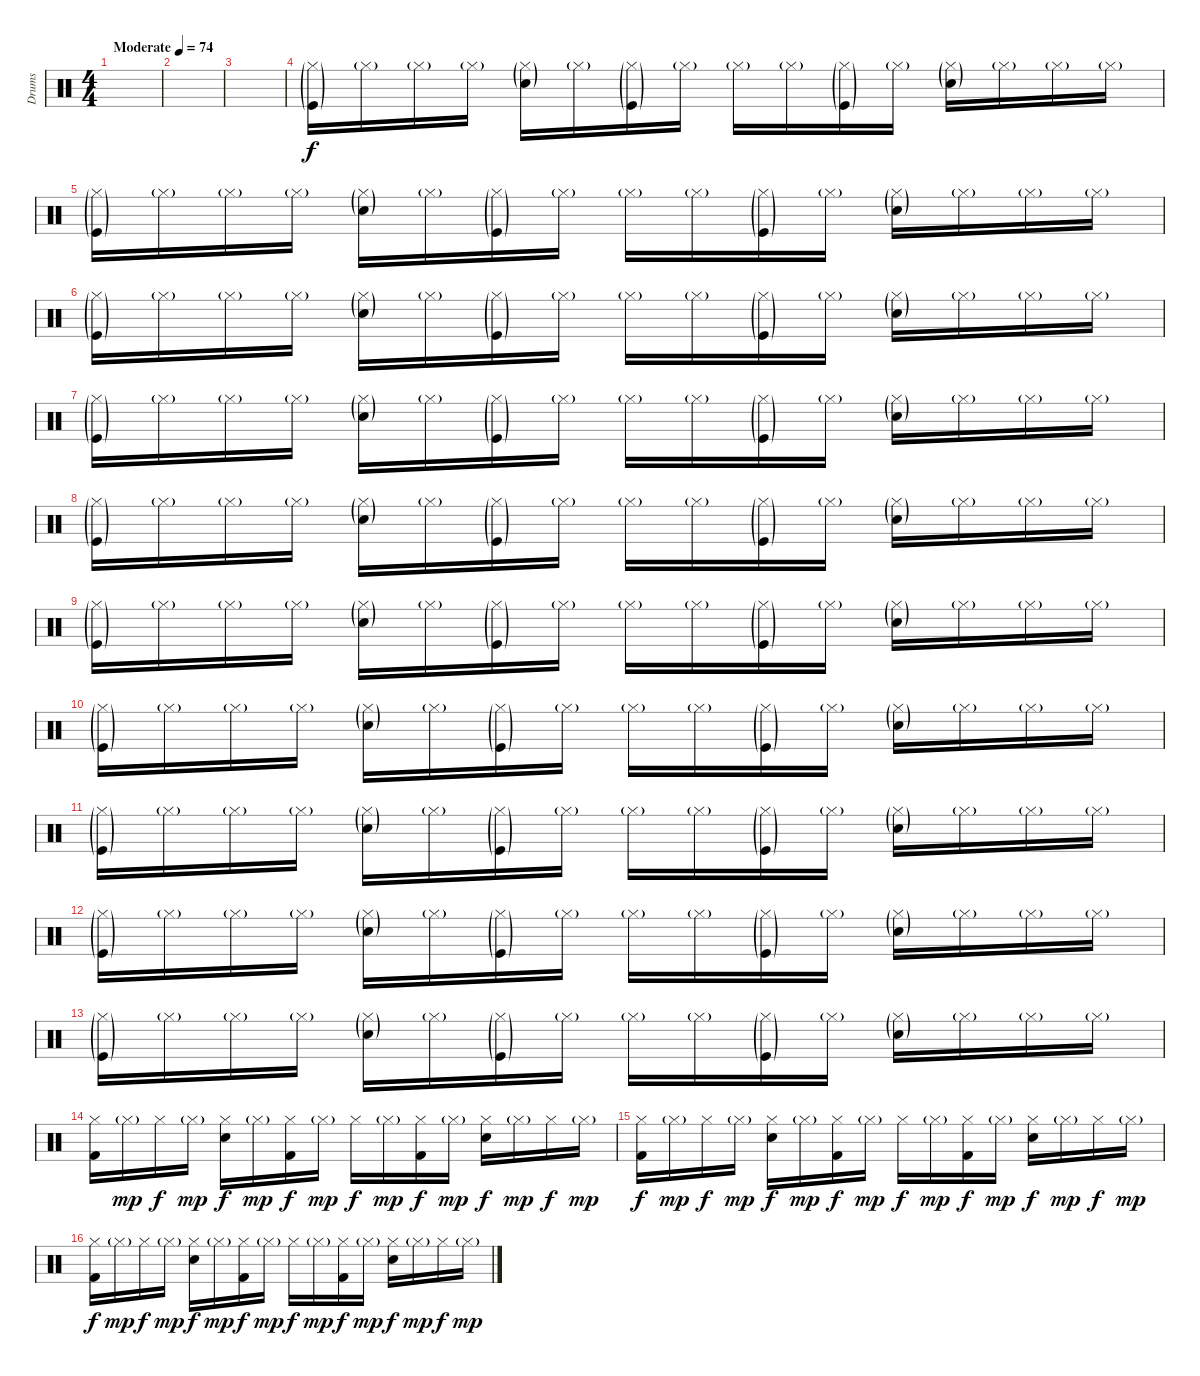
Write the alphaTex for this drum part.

\track ("Drums" "Drums") {instrument percussion}
\staff {score}
\articulation defaults
\ts (4 4)
\tempo (74 "Moderate")
\clef neutral
\ks c
|
|
|
("Hi-Hat (closed)"{g} "Kick (hit)"{g}).16{volume 10} "Hi-Hat (closed)"{g}.16 "Hi-Hat (closed)"{g}.16 "Hi-Hat (closed)"{g}.16 ("Hi-Hat (closed)"{g} "Electric Snare (hit)"{g}).16 "Hi-Hat (closed)"{g}.16 ("Hi-Hat (closed)"{g} "Kick (hit)"{g}).16 "Hi-Hat (closed)"{g}.16 "Hi-Hat (closed)"{g}.16 "Hi-Hat (closed)"{g}.16 ("Hi-Hat (closed)"{g} "Kick (hit)"{g}).16 "Hi-Hat (closed)"{g}.16 ("Hi-Hat (closed)"{g} "Electric Snare (hit)"{g}).16 "Hi-Hat (closed)"{g}.16 "Hi-Hat (closed)"{g}.16 "Hi-Hat (closed)"{g}.16 |
("Hi-Hat (closed)"{g} "Kick (hit)"{g}).16 "Hi-Hat (closed)"{g}.16 "Hi-Hat (closed)"{g}.16 "Hi-Hat (closed)"{g}.16 ("Hi-Hat (closed)"{g} "Electric Snare (hit)"{g}).16 "Hi-Hat (closed)"{g}.16 ("Hi-Hat (closed)"{g} "Kick (hit)"{g}).16 "Hi-Hat (closed)"{g}.16 "Hi-Hat (closed)"{g}.16 "Hi-Hat (closed)"{g}.16 ("Hi-Hat (closed)"{g} "Kick (hit)"{g}).16 "Hi-Hat (closed)"{g}.16 ("Hi-Hat (closed)"{g} "Electric Snare (hit)"{g}).16 "Hi-Hat (closed)"{g}.16 "Hi-Hat (closed)"{g}.16 "Hi-Hat (closed)"{g}.16 |
("Hi-Hat (closed)"{g} "Kick (hit)"{g}).16 "Hi-Hat (closed)"{g}.16 "Hi-Hat (closed)"{g}.16 "Hi-Hat (closed)"{g}.16 ("Hi-Hat (closed)"{g} "Electric Snare (hit)"{g}).16 "Hi-Hat (closed)"{g}.16 ("Hi-Hat (closed)"{g} "Kick (hit)"{g}).16 "Hi-Hat (closed)"{g}.16 "Hi-Hat (closed)"{g}.16 "Hi-Hat (closed)"{g}.16 ("Hi-Hat (closed)"{g} "Kick (hit)"{g}).16 "Hi-Hat (closed)"{g}.16 ("Hi-Hat (closed)"{g} "Electric Snare (hit)"{g}).16 "Hi-Hat (closed)"{g}.16 "Hi-Hat (closed)"{g}.16 "Hi-Hat (closed)"{g}.16 |
("Hi-Hat (closed)"{g} "Kick (hit)"{g}).16 "Hi-Hat (closed)"{g}.16 "Hi-Hat (closed)"{g}.16 "Hi-Hat (closed)"{g}.16 ("Hi-Hat (closed)"{g} "Electric Snare (hit)"{g}).16 "Hi-Hat (closed)"{g}.16 ("Hi-Hat (closed)"{g} "Kick (hit)"{g}).16 "Hi-Hat (closed)"{g}.16 "Hi-Hat (closed)"{g}.16 "Hi-Hat (closed)"{g}.16 ("Hi-Hat (closed)"{g} "Kick (hit)"{g}).16 "Hi-Hat (closed)"{g}.16 ("Hi-Hat (closed)"{g} "Electric Snare (hit)"{g}).16 "Hi-Hat (closed)"{g}.16 "Hi-Hat (closed)"{g}.16 "Hi-Hat (closed)"{g}.16 |
("Hi-Hat (closed)"{g} "Kick (hit)"{g}).16 "Hi-Hat (closed)"{g}.16 "Hi-Hat (closed)"{g}.16 "Hi-Hat (closed)"{g}.16 ("Hi-Hat (closed)"{g} "Electric Snare (hit)"{g}).16 "Hi-Hat (closed)"{g}.16 ("Hi-Hat (closed)"{g} "Kick (hit)"{g}).16 "Hi-Hat (closed)"{g}.16 "Hi-Hat (closed)"{g}.16 "Hi-Hat (closed)"{g}.16 ("Hi-Hat (closed)"{g} "Kick (hit)"{g}).16 "Hi-Hat (closed)"{g}.16 ("Hi-Hat (closed)"{g} "Electric Snare (hit)"{g}).16 "Hi-Hat (closed)"{g}.16 "Hi-Hat (closed)"{g}.16 "Hi-Hat (closed)"{g}.16 |
("Hi-Hat (closed)"{g} "Kick (hit)"{g}).16 "Hi-Hat (closed)"{g}.16 "Hi-Hat (closed)"{g}.16 "Hi-Hat (closed)"{g}.16 ("Hi-Hat (closed)"{g} "Electric Snare (hit)"{g}).16 "Hi-Hat (closed)"{g}.16 ("Hi-Hat (closed)"{g} "Kick (hit)"{g}).16 "Hi-Hat (closed)"{g}.16 "Hi-Hat (closed)"{g}.16 "Hi-Hat (closed)"{g}.16 ("Hi-Hat (closed)"{g} "Kick (hit)"{g}).16 "Hi-Hat (closed)"{g}.16 ("Hi-Hat (closed)"{g} "Electric Snare (hit)"{g}).16 "Hi-Hat (closed)"{g}.16 "Hi-Hat (closed)"{g}.16 "Hi-Hat (closed)"{g}.16 |
("Hi-Hat (closed)"{g} "Kick (hit)"{g}).16 "Hi-Hat (closed)"{g}.16 "Hi-Hat (closed)"{g}.16 "Hi-Hat (closed)"{g}.16 ("Hi-Hat (closed)"{g} "Electric Snare (hit)"{g}).16 "Hi-Hat (closed)"{g}.16 ("Hi-Hat (closed)"{g} "Kick (hit)"{g}).16 "Hi-Hat (closed)"{g}.16 "Hi-Hat (closed)"{g}.16 "Hi-Hat (closed)"{g}.16 ("Hi-Hat (closed)"{g} "Kick (hit)"{g}).16 "Hi-Hat (closed)"{g}.16 ("Hi-Hat (closed)"{g} "Electric Snare (hit)"{g}).16 "Hi-Hat (closed)"{g}.16 "Hi-Hat (closed)"{g}.16 "Hi-Hat (closed)"{g}.16 |
("Hi-Hat (closed)"{g} "Kick (hit)"{g}).16 "Hi-Hat (closed)"{g}.16 "Hi-Hat (closed)"{g}.16 "Hi-Hat (closed)"{g}.16 ("Hi-Hat (closed)"{g} "Electric Snare (hit)"{g}).16 "Hi-Hat (closed)"{g}.16 ("Hi-Hat (closed)"{g} "Kick (hit)"{g}).16 "Hi-Hat (closed)"{g}.16 "Hi-Hat (closed)"{g}.16 "Hi-Hat (closed)"{g}.16 ("Hi-Hat (closed)"{g} "Kick (hit)"{g}).16 "Hi-Hat (closed)"{g}.16 ("Hi-Hat (closed)"{g} "Electric Snare (hit)"{g}).16 "Hi-Hat (closed)"{g}.16 "Hi-Hat (closed)"{g}.16 "Hi-Hat (closed)"{g}.16 |
("Hi-Hat (closed)"{g} "Kick (hit)"{g}).16 "Hi-Hat (closed)"{g}.16 "Hi-Hat (closed)"{g}.16 "Hi-Hat (closed)"{g}.16 ("Hi-Hat (closed)"{g} "Electric Snare (hit)"{g}).16 "Hi-Hat (closed)"{g}.16 ("Hi-Hat (closed)"{g} "Kick (hit)"{g}).16 "Hi-Hat (closed)"{g}.16 "Hi-Hat (closed)"{g}.16 "Hi-Hat (closed)"{g}.16 ("Hi-Hat (closed)"{g} "Kick (hit)"{g}).16 "Hi-Hat (closed)"{g}.16 ("Hi-Hat (closed)"{g} "Electric Snare (hit)"{g}).16 "Hi-Hat (closed)"{g}.16 "Hi-Hat (closed)"{g}.16 "Hi-Hat (closed)"{g}.16 |
("Hi-Hat (closed)"{g} "Kick (hit)"{g}).16 "Hi-Hat (closed)"{g}.16 "Hi-Hat (closed)"{g}.16 "Hi-Hat (closed)"{g}.16 ("Hi-Hat (closed)"{g} "Electric Snare (hit)"{g}).16 "Hi-Hat (closed)"{g}.16 ("Hi-Hat (closed)"{g} "Kick (hit)"{g}).16 "Hi-Hat (closed)"{g}.16 "Hi-Hat (closed)"{g}.16 "Hi-Hat (closed)"{g}.16 ("Hi-Hat (closed)"{g} "Kick (hit)"{g}).16 "Hi-Hat (closed)"{g}.16 ("Hi-Hat (closed)"{g} "Electric Snare (hit)"{g}).16 "Hi-Hat (closed)"{g}.16 "Hi-Hat (closed)"{g}.16 "Hi-Hat (closed)"{g}.16 |
("Hi-Hat (closed)" "Kick (hit) 2").16{dy f} "Hi-Hat (closed)"{g}.16{dy mp} "Hi-Hat (closed)".16{dy f} "Hi-Hat (closed)"{g}.16{dy mp} ("Hi-Hat (closed)" "Electric Snare (hit)").16{dy f} "Hi-Hat (closed)"{g}.16{dy mp} ("Hi-Hat (closed)" "Kick (hit) 2").16{dy f} "Hi-Hat (closed)"{g}.16{dy mp} "Hi-Hat (closed)".16{dy f} "Hi-Hat (closed)"{g}.16{dy mp} ("Hi-Hat (closed)" "Kick (hit) 2").16{dy f} "Hi-Hat (closed)"{g}.16{dy mp} ("Hi-Hat (closed)" "Electric Snare (hit)").16{dy f} "Hi-Hat (closed)"{g}.16{dy mp} "Hi-Hat (closed)".16{dy f} "Hi-Hat (closed)"{g}.16{dy mp} |
("Hi-Hat (closed)" "Kick (hit) 2").16{dy f} "Hi-Hat (closed)"{g}.16{dy mp} "Hi-Hat (closed)".16{dy f} "Hi-Hat (closed)"{g}.16{dy mp} ("Hi-Hat (closed)" "Electric Snare (hit)").16{dy f} "Hi-Hat (closed)"{g}.16{dy mp} ("Hi-Hat (closed)" "Kick (hit) 2").16{dy f} "Hi-Hat (closed)"{g}.16{dy mp} "Hi-Hat (closed)".16{dy f} "Hi-Hat (closed)"{g}.16{dy mp} ("Hi-Hat (closed)" "Kick (hit) 2").16{dy f} "Hi-Hat (closed)"{g}.16{dy mp} ("Hi-Hat (closed)" "Electric Snare (hit)").16{dy f} "Hi-Hat (closed)"{g}.16{dy mp} "Hi-Hat (closed)".16{dy f} "Hi-Hat (closed)"{g}.16{dy mp} |
("Hi-Hat (closed)" "Kick (hit) 2").16{dy f} "Hi-Hat (closed)"{g}.16{dy mp} "Hi-Hat (closed)".16{dy f} "Hi-Hat (closed)"{g}.16{dy mp} ("Hi-Hat (closed)" "Electric Snare (hit)").16{dy f} "Hi-Hat (closed)"{g}.16{dy mp} ("Hi-Hat (closed)" "Kick (hit) 2").16{dy f} "Hi-Hat (closed)"{g}.16{dy mp} "Hi-Hat (closed)".16{dy f} "Hi-Hat (closed)"{g}.16{dy mp} ("Hi-Hat (closed)" "Kick (hit) 2").16{dy f} "Hi-Hat (closed)"{g}.16{dy mp} ("Hi-Hat (closed)" "Electric Snare (hit)").16{dy f} "Hi-Hat (closed)"{g}.16{dy mp} "Hi-Hat (closed)".16{dy f} "Hi-Hat (closed)"{g}.16{dy mp}
